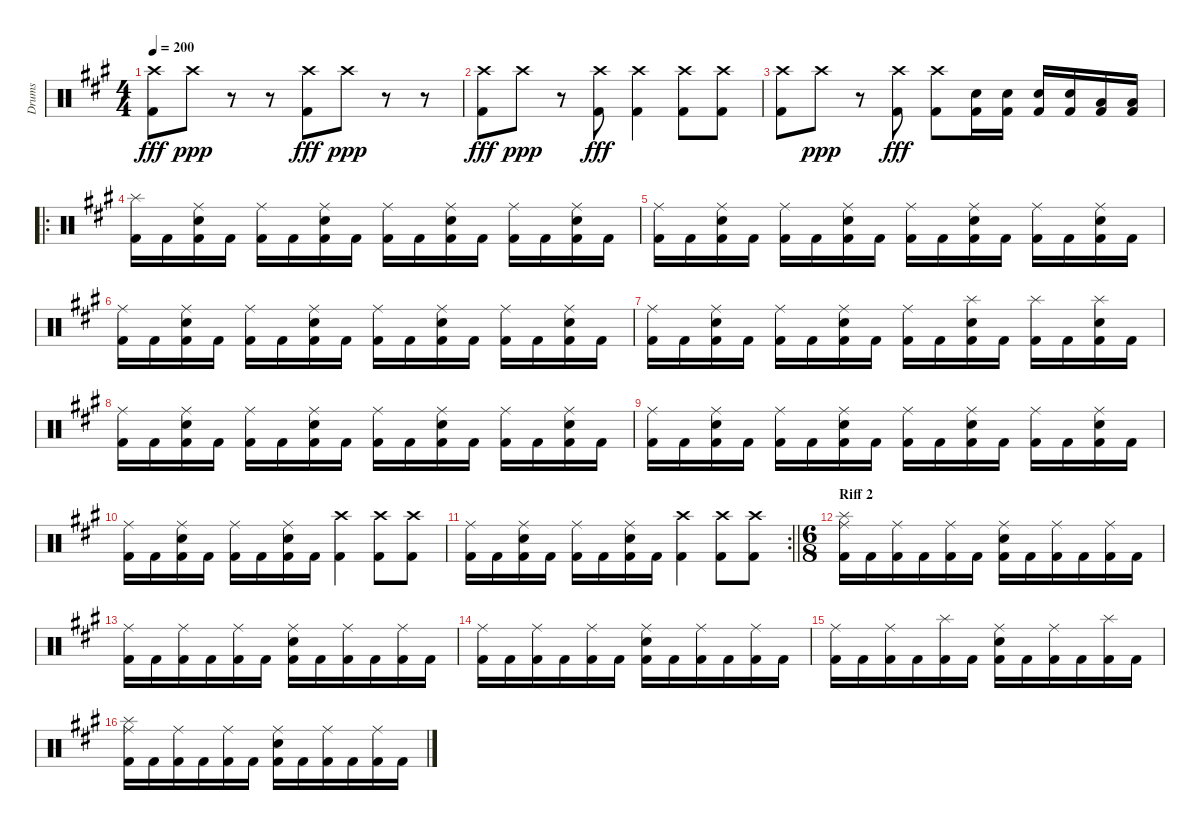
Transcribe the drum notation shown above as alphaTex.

\track ("Drums" "Drums") {instrument percussion}
\staff {score}
\articulation defaults
\ts (4 4)
\tempo 200
\clef neutral
\ks f#minor
("Crash high (hit)" "Kick (hit) 2").8{dy fff} "Crash high (hit)".8{dy ppp} r.8 r.8 ("Crash high (hit)" "Kick (hit) 2").8{dy fff} "Crash high (hit)".8{dy ppp} r.8 r.8 |
("Crash high (hit)" "Kick (hit) 2").8{dy fff} "Crash high (hit)".8{dy ppp} r.8 ("Crash high (hit)" "Kick (hit) 2").8{dy fff} ("Crash high (hit)" "Kick (hit) 2").4 ("Crash high (hit)" "Kick (hit) 2").8 ("Crash high (hit)" "Kick (hit) 2").8 |
("Crash high (hit)" "Kick (hit) 2").8 "Crash high (hit)".8{dy ppp} r.8 ("Crash high (hit)" "Kick (hit) 2").8{dy fff} ("Crash high (hit)" "Kick (hit) 2").8 ("Electric Snare (hit)" "Kick (hit) 2").16 ("Electric Snare (hit)" "Kick (hit) 2").16 ("Electric Snare (hit)" "Kick (hit) 2").16 ("Electric Snare (hit)" "Kick (hit) 2").16 ("Low Tom (hit)" "Kick (hit) 2").16 ("Low Tom (hit)" "Kick (hit) 2").16 |
\ro
("Splash (hit)" "Kick (hit) 2").16 "Kick (hit) 2".16 ("Ride (middle)" "Electric Snare (hit)" "Kick (hit) 2").16 "Kick (hit) 2".16 ("Ride (middle)" "Kick (hit) 2").16 "Kick (hit) 2".16 ("Ride (middle)" "Electric Snare (hit)" "Kick (hit) 2").16 "Kick (hit) 2".16 ("Ride (middle)" "Kick (hit) 2").16 "Kick (hit) 2".16 ("Ride (middle)" "Electric Snare (hit)" "Kick (hit) 2").16 "Kick (hit) 2".16 ("Ride (middle)" "Kick (hit) 2").16 "Kick (hit) 2".16 ("Ride (middle)" "Electric Snare (hit)" "Kick (hit) 2").16 "Kick (hit) 2".16 |
("Ride (middle)" "Kick (hit) 2").16 "Kick (hit) 2".16 ("Ride (middle)" "Electric Snare (hit)" "Kick (hit) 2").16 "Kick (hit) 2".16 ("Ride (middle)" "Kick (hit) 2").16 "Kick (hit) 2".16 ("Ride (middle)" "Electric Snare (hit)" "Kick (hit) 2").16 "Kick (hit) 2".16 ("Ride (middle)" "Kick (hit) 2").16 "Kick (hit) 2".16 ("Ride (middle)" "Electric Snare (hit)" "Kick (hit) 2").16 "Kick (hit) 2".16 ("Ride (middle)" "Kick (hit) 2").16 "Kick (hit) 2".16 ("Ride (middle)" "Electric Snare (hit)" "Kick (hit) 2").16 "Kick (hit) 2".16 |
("Ride (middle)" "Kick (hit) 2").16 "Kick (hit) 2".16 ("Ride (middle)" "Electric Snare (hit)" "Kick (hit) 2").16 "Kick (hit) 2".16 ("Ride (middle)" "Kick (hit) 2").16 "Kick (hit) 2".16 ("Ride (middle)" "Electric Snare (hit)" "Kick (hit) 2").16 "Kick (hit) 2".16 ("Ride (middle)" "Kick (hit) 2").16 "Kick (hit) 2".16 ("Ride (middle)" "Electric Snare (hit)" "Kick (hit) 2").16 "Kick (hit) 2".16 ("Ride (middle)" "Kick (hit) 2").16 "Kick (hit) 2".16 ("Ride (middle)" "Electric Snare (hit)" "Kick (hit) 2").16 "Kick (hit) 2".16 |
("Ride (middle)" "Kick (hit) 2").16 "Kick (hit) 2".16 ("Ride (middle)" "Electric Snare (hit)" "Kick (hit) 2").16 "Kick (hit) 2".16 ("Ride (middle)" "Kick (hit) 2").16 "Kick (hit) 2".16 ("Ride (middle)" "Electric Snare (hit)" "Kick (hit) 2").16 "Kick (hit) 2".16 ("Ride (middle)" "Kick (hit) 2").16 "Kick (hit) 2".16 ("Splash (hit)" "Electric Snare (hit)" "Kick (hit) 2").16 "Kick (hit) 2".16 ("Splash (hit)" "Kick (hit) 2").16 "Kick (hit) 2".16 ("Splash (hit)" "Electric Snare (hit)" "Kick (hit) 2").16 "Kick (hit) 2".16 |
("Ride (middle)" "Kick (hit) 2").16 "Kick (hit) 2".16 ("Ride (middle)" "Electric Snare (hit)" "Kick (hit) 2").16 "Kick (hit) 2".16 ("Ride (middle)" "Kick (hit) 2").16 "Kick (hit) 2".16 ("Ride (middle)" "Electric Snare (hit)" "Kick (hit) 2").16 "Kick (hit) 2".16 ("Ride (middle)" "Kick (hit) 2").16 "Kick (hit) 2".16 ("Ride (middle)" "Electric Snare (hit)" "Kick (hit) 2").16 "Kick (hit) 2".16 ("Ride (middle)" "Kick (hit) 2").16 "Kick (hit) 2".16 ("Ride (middle)" "Electric Snare (hit)" "Kick (hit) 2").16 "Kick (hit) 2".16 |
("Ride (middle)" "Kick (hit) 2").16 "Kick (hit) 2".16 ("Ride (middle)" "Electric Snare (hit)" "Kick (hit) 2").16 "Kick (hit) 2".16 ("Ride (middle)" "Kick (hit) 2").16 "Kick (hit) 2".16 ("Ride (middle)" "Electric Snare (hit)" "Kick (hit) 2").16 "Kick (hit) 2".16 ("Ride (middle)" "Kick (hit) 2").16 "Kick (hit) 2".16 ("Ride (middle)" "Electric Snare (hit)" "Kick (hit) 2").16 "Kick (hit) 2".16 ("Ride (middle)" "Kick (hit) 2").16 "Kick (hit) 2".16 ("Ride (middle)" "Electric Snare (hit)" "Kick (hit) 2").16 "Kick (hit) 2".16 |
("Ride (middle)" "Kick (hit) 2").16 "Kick (hit) 2".16 ("Ride (middle)" "Electric Snare (hit)" "Kick (hit) 2").16 "Kick (hit) 2".16 ("Ride (middle)" "Kick (hit) 2").16 "Kick (hit) 2".16 ("Ride (middle)" "Electric Snare (hit)" "Kick (hit) 2").16 "Kick (hit) 2".16 ("Crash high (hit)" "Kick (hit) 2").4 ("Crash high (hit)" "Kick (hit) 2").8 ("Crash high (hit)" "Kick (hit) 2").8 |
\rc 2
\barLineRight lightlight
("Ride (middle)" "Kick (hit) 2").16 "Kick (hit) 2".16 ("Ride (middle)" "Electric Snare (hit)" "Kick (hit) 2").16 "Kick (hit) 2".16 ("Ride (middle)" "Kick (hit) 2").16 "Kick (hit) 2".16 ("Ride (middle)" "Electric Snare (hit)" "Kick (hit) 2").16 "Kick (hit) 2".16 ("Crash high (hit)" "Kick (hit) 2").4 ("Crash high (hit)" "Kick (hit) 2").8 ("Crash high (hit)" "Kick (hit) 2").8 |
\ts (6 8)
\section ("" "Riff 2")
("Ride (middle)" "Splash (hit)" "Kick (hit) 2").16 "Kick (hit) 2".16 ("Ride (middle)" "Kick (hit) 2").16 "Kick (hit) 2".16 ("Ride (middle)" "Kick (hit) 2").16 "Kick (hit) 2".16 ("Ride (middle)" "Electric Snare (hit)" "Kick (hit) 2").16 "Kick (hit) 2".16 ("Ride (middle)" "Kick (hit) 2").16 "Kick (hit) 2".16 ("Ride (middle)" "Kick (hit) 2").16 "Kick (hit) 2".16 |
("Ride (middle)" "Kick (hit) 2").16 "Kick (hit) 2".16 ("Ride (middle)" "Kick (hit) 2").16 "Kick (hit) 2".16 ("Ride (middle)" "Kick (hit) 2").16 "Kick (hit) 2".16 ("Ride (middle)" "Electric Snare (hit)" "Kick (hit) 2").16 "Kick (hit) 2".16 ("Ride (middle)" "Kick (hit) 2").16 "Kick (hit) 2".16 ("Ride (middle)" "Kick (hit) 2").16 "Kick (hit) 2".16 |
("Ride (middle)" "Kick (hit) 2").16 "Kick (hit) 2".16 ("Ride (middle)" "Kick (hit) 2").16 "Kick (hit) 2".16 ("Ride (middle)" "Kick (hit) 2").16 "Kick (hit) 2".16 ("Ride (middle)" "Electric Snare (hit)" "Kick (hit) 2").16 "Kick (hit) 2".16 ("Ride (middle)" "Kick (hit) 2").16 "Kick (hit) 2".16 ("Ride (middle)" "Kick (hit) 2").16 "Kick (hit) 2".16 |
("Ride (middle)" "Kick (hit) 2").16 "Kick (hit) 2".16 ("Ride (middle)" "Kick (hit) 2").16 "Kick (hit) 2".16 ("Splash (hit)" "Kick (hit) 2").16 "Kick (hit) 2".16 ("Ride (middle)" "Electric Snare (hit)" "Kick (hit) 2").16 "Kick (hit) 2".16 ("Ride (middle)" "Kick (hit) 2").16 "Kick (hit) 2".16 ("Splash (hit)" "Kick (hit) 2").16 "Kick (hit) 2".16 |
("Ride (middle)" "Splash (hit)" "Kick (hit) 2").16 "Kick (hit) 2".16 ("Ride (middle)" "Kick (hit) 2").16 "Kick (hit) 2".16 ("Ride (middle)" "Kick (hit) 2").16 "Kick (hit) 2".16 ("Ride (middle)" "Electric Snare (hit)" "Kick (hit) 2").16 "Kick (hit) 2".16 ("Ride (middle)" "Kick (hit) 2").16 "Kick (hit) 2".16 ("Ride (middle)" "Kick (hit) 2").16 "Kick (hit) 2".16
